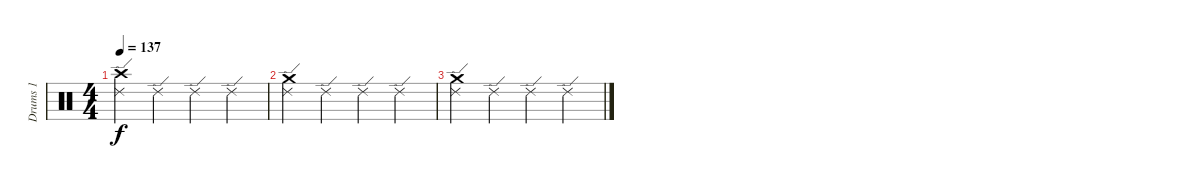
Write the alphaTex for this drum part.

\track ("Drums 1" "Drums 1") {instrument percussion}
\staff {score}
\articulation defaults
\ts (4 4)
\tempo 137
\clef neutral
\ks c
("Crash high (hit)" "Ride (edge) 2").4{dy f} "Ride (edge) 2".4 "Ride (edge) 2".4 "Ride (edge) 2".4 |
("Crash medium (hit)" "Ride (edge) 2").4 "Ride (edge) 2".4 "Ride (edge) 2".4 "Ride (edge) 2".4 |
("Crash medium (hit)" "Ride (edge) 2").4 "Ride (edge) 2".4 "Ride (edge) 2".4 "Ride (edge) 2".4
